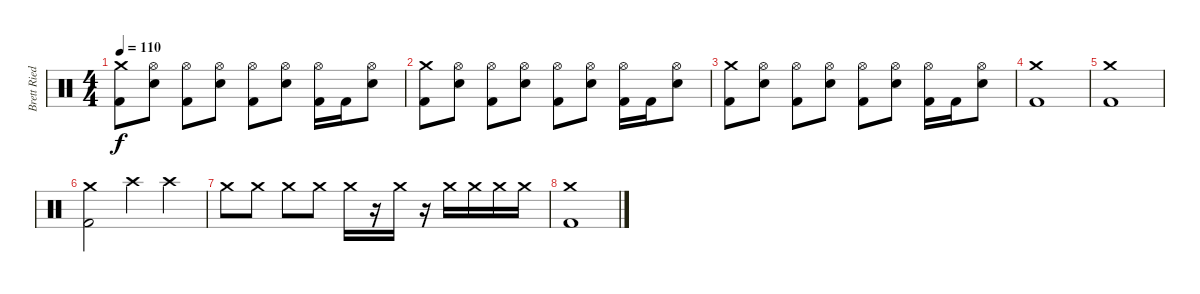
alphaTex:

\track ("Brett Ried" "Brett Ried") {instrument percussion}
\staff {score}
\articulation defaults
\ts (4 4)
\tempo 110
\clef neutral
\ks c
("Crash medium (hit)" "Kick (hit) 2").8{dy f} ("Hi-Hat (open)" "Snare (hit) 2").8 ("Hi-Hat (open)" "Kick (hit) 2").8 ("Hi-Hat (open)" "Snare (hit) 2").8 ("Hi-Hat (open)" "Kick (hit) 2").8 ("Hi-Hat (open)" "Snare (hit) 2").8 ("Hi-Hat (open)" "Kick (hit) 2").16 "Kick (hit) 2".16 ("Hi-Hat (open)" "Snare (hit) 2").8 |
("Crash medium (hit)" "Kick (hit) 2").8 ("Hi-Hat (open)" "Snare (hit) 2").8 ("Hi-Hat (open)" "Kick (hit) 2").8 ("Hi-Hat (open)" "Snare (hit) 2").8 ("Hi-Hat (open)" "Kick (hit) 2").8 ("Hi-Hat (open)" "Snare (hit) 2").8 ("Hi-Hat (open)" "Kick (hit) 2").16 "Kick (hit) 2".16 ("Hi-Hat (open)" "Snare (hit) 2").8 |
("Crash medium (hit)" "Kick (hit) 2").8 ("Hi-Hat (open)" "Snare (hit) 2").8 ("Hi-Hat (open)" "Kick (hit) 2").8 ("Hi-Hat (open)" "Snare (hit) 2").8 ("Hi-Hat (open)" "Kick (hit) 2").8 ("Hi-Hat (open)" "Snare (hit) 2").8 ("Hi-Hat (open)" "Kick (hit) 2").16 "Kick (hit) 2".16 ("Hi-Hat (open)" "Snare (hit) 2").8 |
("Crash medium (hit)" "Kick (hit) 2").1 |
("Crash medium (hit)" "Kick (hit) 2").1 |
("Crash medium (hit)" "Kick (hit) 2").2 "Crash high (hit)".4 "Crash high (hit)".4 |
"Crash medium (hit)".8 "Crash medium (hit)".8 "Crash medium (hit)".8 "Crash medium (hit)".8 "Crash medium (hit)".16 r.16 "Crash medium (hit)".16 r.16 "Crash medium (hit)".16 "Crash medium (hit)".16 "Crash medium (hit)".16 "Crash medium (hit)".16 |
("Crash medium (hit)" "Kick (hit) 2").1
